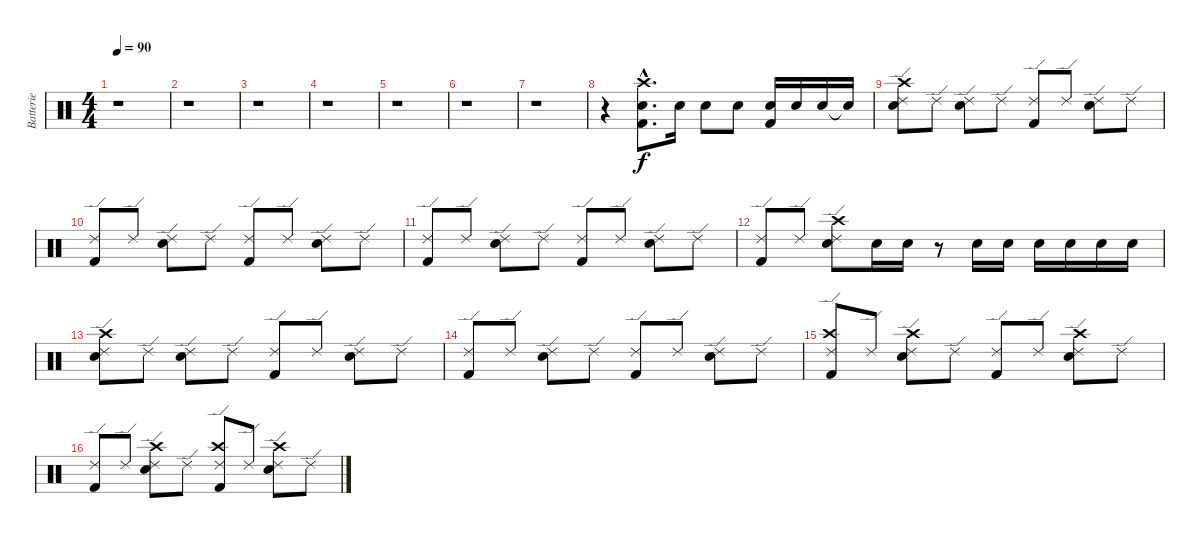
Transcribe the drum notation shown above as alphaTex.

\track ("Batterie" "Batterie") {instrument percussion}
\staff {score}
\articulation defaults
\ts (4 4)
\tempo 90
\clef neutral
\ks c
r.1{dy f} |
r.1 |
r.1 |
r.1 |
r.1 |
r.1 |
r.1 |
r.4 ("Kick (hit) 2"{hac} "Electric Snare (hit)"{hac} "Crash high (hit)"{hac}).8{d} "Electric Snare (hit)".16 "Electric Snare (hit)".8 "Electric Snare (hit)".8 ("Kick (hit) 2" "Electric Snare (hit)").16 "Electric Snare (hit)".16 "Electric Snare (hit)".16 "Snare (hit)"{t}.16 |
("Ride (edge) 2" "Electric Snare (hit)" "Crash high (hit)").8 "Ride (edge) 2".8 ("Ride (edge) 2" "Electric Snare (hit)").8 "Ride (edge) 2".8 ("Ride (edge) 2" "Kick (hit) 2").8 "Ride (edge) 2".8 ("Ride (edge) 2" "Electric Snare (hit)").8 "Ride (edge) 2".8 |
("Ride (edge) 2" "Kick (hit) 2").8 "Ride (edge) 2".8 ("Ride (edge) 2" "Electric Snare (hit)").8 "Ride (edge) 2".8 ("Ride (edge) 2" "Kick (hit) 2").8 "Ride (edge) 2".8 ("Ride (edge) 2" "Electric Snare (hit)").8 "Ride (edge) 2".8 |
("Ride (edge) 2" "Kick (hit) 2").8 "Ride (edge) 2".8 ("Ride (edge) 2" "Electric Snare (hit)").8 "Ride (edge) 2".8 ("Ride (edge) 2" "Kick (hit) 2").8 "Ride (edge) 2".8 ("Ride (edge) 2" "Electric Snare (hit)").8 "Ride (edge) 2".8 |
("Ride (edge) 2" "Kick (hit) 2").8 "Ride (edge) 2".8 ("Ride (edge) 2" "Electric Snare (hit)" "Crash high (hit)").8 "Electric Snare (hit)".16 "Electric Snare (hit)".16 r.8 "Electric Snare (hit)".16 "Electric Snare (hit)".16 "Electric Snare (hit)".16 "Electric Snare (hit)".16 "Electric Snare (hit)".16 "Electric Snare (hit)".16 |
("Ride (edge) 2" "Electric Snare (hit)" "Crash high (hit)").8 "Ride (edge) 2".8 ("Ride (edge) 2" "Electric Snare (hit)").8 "Ride (edge) 2".8 ("Ride (edge) 2" "Kick (hit) 2").8 "Ride (edge) 2".8 ("Ride (edge) 2" "Electric Snare (hit)").8 "Ride (edge) 2".8 |
("Ride (edge) 2" "Kick (hit) 2").8 "Ride (edge) 2".8 ("Ride (edge) 2" "Electric Snare (hit)").8 "Ride (edge) 2".8 ("Ride (edge) 2" "Kick (hit) 2").8 "Ride (edge) 2".8 ("Ride (edge) 2" "Electric Snare (hit)").8 "Ride (edge) 2".8 |
("Ride (edge) 2" "Kick (hit) 2" "Crash high (hit)").8 "Ride (edge) 2".8 ("Ride (edge) 2" "Electric Snare (hit)" "Crash high (hit)").8 "Ride (edge) 2".8 ("Ride (edge) 2" "Kick (hit) 2").8 "Ride (edge) 2".8 ("Ride (edge) 2" "Electric Snare (hit)" "Crash high (hit)").8 "Ride (edge) 2".8 |
("Ride (edge) 2" "Kick (hit) 2").8 "Ride (edge) 2".8 ("Ride (edge) 2" "Electric Snare (hit)" "Crash high (hit)").8 "Ride (edge) 2".8 ("Ride (edge) 2" "Kick (hit) 2" "Crash high (hit)").8 "Ride (edge) 2".8 ("Ride (edge) 2" "Electric Snare (hit)" "Crash high (hit)").8 "Ride (edge) 2".8
